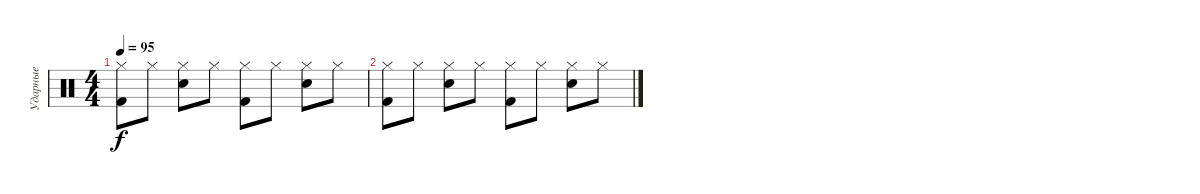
\track ("Ударные" "Ударные") {instrument percussion}
\staff {score}
\articulation defaults
\ts (4 4)
\tempo 95
\clef neutral
\ks c
("Hi-Hat (closed)" "Kick (hit) 2").8{dy f} "Hi-Hat (closed)".8 ("Hi-Hat (closed)" "Snare (hit) 2").8 "Hi-Hat (closed)".8 ("Hi-Hat (closed)" "Kick (hit) 2").8 "Hi-Hat (closed)".8 ("Hi-Hat (closed)" "Snare (hit) 2").8 "Hi-Hat (closed)".8 |
("Hi-Hat (closed)" "Kick (hit) 2").8 "Hi-Hat (closed)".8 ("Hi-Hat (closed)" "Snare (hit) 2").8 "Hi-Hat (closed)".8 ("Hi-Hat (closed)" "Kick (hit) 2").8 "Hi-Hat (closed)".8 ("Hi-Hat (closed)" "Snare (hit) 2").8 "Hi-Hat (closed)".8
